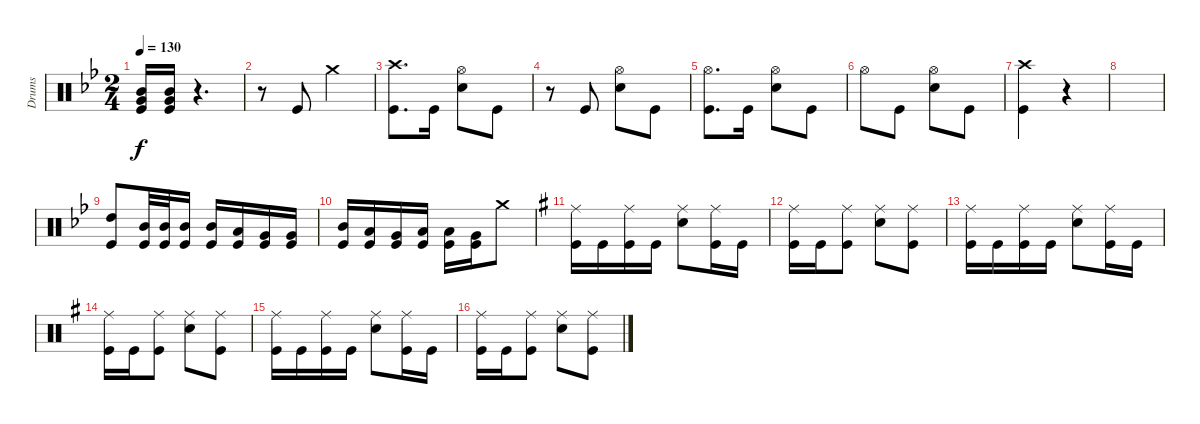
\track ("Drums" "Drums") {instrument percussion}
\staff {score}
\articulation defaults
\ts (2 4)
\tempo 130
\clef neutral
\ks gminor
("Mid Tom (hit)" "Very Low Tom (hit)" "Kick (hit)").16{dy f} ("Mid Tom (hit)" "Very Low Tom (hit)" "Kick (hit)").16 r.4{d} |
r.8 "Kick (hit)".8 "Crash medium (hit)".4 |
("Kick (hit)" "Crash high (hit)").8{d} "Kick (hit)".16 ("Snare (hit) 2" "Hi-Hat (open)").8 "Kick (hit)".8 |
r.8 "Kick (hit)".8 ("Snare (hit) 2" "Hi-Hat (open)").8 "Kick (hit)".8 |
("Kick (hit)" "Hi-Hat (open)").8{d} "Kick (hit)".16 ("Snare (hit) 2" "Hi-Hat (open)").8 "Kick (hit)".8 |
"Hi-Hat (open)".8 "Kick (hit)".8 ("Snare (hit) 2" "Hi-Hat (open)").8 "Kick (hit)".8 |
("Crash high (hit)" "Kick (hit)").4 r.4 |
|
("Kick (hit)" "High Tom (hit)").8 ("Kick (hit)" "Mid Tom (hit)").32 ("Kick (hit)" "Mid Tom (hit)").32 ("Kick (hit)" "Mid Tom (hit)").16 ("Kick (hit)" "Mid Tom (hit)").16 ("Kick (hit)" "Low Tom (hit)").16 ("Kick (hit)" "Very Low Tom (hit)").16 ("Kick (hit)" "Very Low Tom (hit)").16 |
("Kick (hit)" "Mid Tom (hit)").16 ("Kick (hit)" "Low Tom (hit)").16 ("Kick (hit)" "Very Low Tom (hit)").16 ("Kick (hit)" "Low Tom (hit)").16 ("Kick (hit)" "Low Tom (hit)").16 ("Kick (hit)" "Very Low Tom (hit)").16 "Crash medium (hit)".8 |
\ks eminor
("Kick (hit)" "Ride (middle)").16 "Kick (hit)".16 ("Kick (hit)" "Ride (middle)").16 "Kick (hit)".16 ("Snare (hit) 2" "Ride (middle)").8 ("Ride (middle)" "Kick (hit)").16 "Kick (hit)".16 |
("Ride (middle)" "Kick (hit)").16 "Kick (hit)".16 ("Ride (middle)" "Kick (hit)").8 ("Snare (hit) 2" "Ride (middle)").8 ("Ride (middle)" "Kick (hit)").8 |
("Kick (hit)" "Ride (middle)").16 "Kick (hit)".16 ("Kick (hit)" "Ride (middle)").16 "Kick (hit)".16 ("Snare (hit) 2" "Ride (middle)").8 ("Ride (middle)" "Kick (hit)").16 "Kick (hit)".16 |
("Ride (middle)" "Kick (hit)").16 "Kick (hit)".16 ("Ride (middle)" "Kick (hit)").8 ("Snare (hit) 2" "Ride (middle)").8 ("Ride (middle)" "Kick (hit)").8 |
("Kick (hit)" "Ride (middle)").16 "Kick (hit)".16 ("Kick (hit)" "Ride (middle)").16 "Kick (hit)".16 ("Snare (hit) 2" "Ride (middle)").8 ("Ride (middle)" "Kick (hit)").16 "Kick (hit)".16 |
("Ride (middle)" "Kick (hit)").16 "Kick (hit)".16 ("Ride (middle)" "Kick (hit)").8 ("Snare (hit) 2" "Ride (middle)").8 ("Ride (middle)" "Kick (hit)").8
